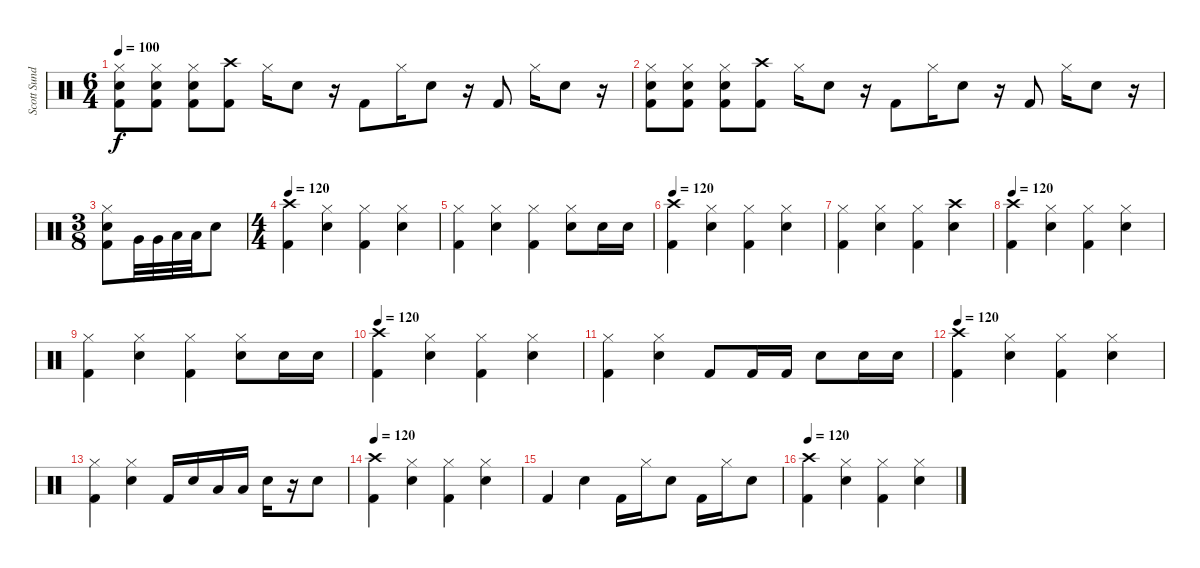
\track ("Scott Sundquist" "Scott Sund") {instrument percussion}
\staff {score}
\articulation defaults
\ts (6 4)
\tempo 100
\clef neutral
\ks c
("Hi-Hat (closed)" "Electric Snare (hit)" "Kick (hit) 2").8{dy f} ("Hi-Hat (closed)" "Electric Snare (hit)" "Kick (hit) 2").8 ("Hi-Hat (closed)" "Electric Snare (hit)" "Kick (hit) 2").8 ("Crash high (hit)" "Kick (hit) 2").8 "Hi-Hat (closed)".16 "Electric Snare (hit)".8 r.16 "Kick (hit) 2".8 "Hi-Hat (closed)".16 "Electric Snare (hit)".8 r.16 "Kick (hit) 2".8 "Hi-Hat (closed)".16 "Electric Snare (hit)".8 r.16 |
("Hi-Hat (closed)" "Electric Snare (hit)" "Kick (hit) 2").8 ("Hi-Hat (closed)" "Electric Snare (hit)" "Kick (hit) 2").8 ("Hi-Hat (closed)" "Electric Snare (hit)" "Kick (hit) 2").8 ("Crash high (hit)" "Kick (hit) 2").8 "Hi-Hat (closed)".16 "Electric Snare (hit)".8 r.16 "Kick (hit) 2".8 "Hi-Hat (closed)".16 "Electric Snare (hit)".8 r.16 "Kick (hit) 2".8 "Hi-Hat (closed)".16 "Electric Snare (hit)".8 r.16 |
\ts (3 8)
("Hi-Hat (closed)" "Electric Snare (hit)" "Kick (hit) 2").8 "Very Low Tom (hit)".32 "Very Low Tom (hit)".32 "Low Floor Tom (hit)".32 "Low Tom (hit)".32 "Electric Snare (hit)".8 |
\ts (4 4)
\tempo 120
("Crash high (hit)" "Kick (hit) 2").4 ("Hi-Hat (closed)" "Electric Snare (hit)").4 ("Hi-Hat (closed)" "Kick (hit) 2").4 ("Hi-Hat (closed)" "Electric Snare (hit)").4 |
("Hi-Hat (closed)" "Kick (hit) 2").4 ("Hi-Hat (closed)" "Electric Snare (hit)").4 ("Hi-Hat (closed)" "Kick (hit) 2").4 ("Hi-Hat (closed)" "Electric Snare (hit)").8 "Electric Snare (hit)".16 "Electric Snare (hit)".16 |
\tempo 120
("Crash high (hit)" "Kick (hit) 2").4 ("Hi-Hat (closed)" "Electric Snare (hit)").4 ("Hi-Hat (closed)" "Kick (hit) 2").4 ("Hi-Hat (closed)" "Electric Snare (hit)").4 |
("Hi-Hat (closed)" "Kick (hit) 2").4 ("Hi-Hat (closed)" "Electric Snare (hit)").4 ("Hi-Hat (closed)" "Kick (hit) 2").4 ("Crash high (hit)" "Electric Snare (hit)").4 |
\tempo 120
("Crash high (hit)" "Kick (hit) 2").4 ("Hi-Hat (closed)" "Electric Snare (hit)").4 ("Hi-Hat (closed)" "Kick (hit) 2").4 ("Hi-Hat (closed)" "Electric Snare (hit)").4 |
("Hi-Hat (closed)" "Kick (hit) 2").4 ("Hi-Hat (closed)" "Electric Snare (hit)").4 ("Hi-Hat (closed)" "Kick (hit) 2").4 ("Hi-Hat (closed)" "Electric Snare (hit)").8 "Electric Snare (hit)".16 "Electric Snare (hit)".16 |
\tempo 120
("Crash high (hit)" "Kick (hit) 2").4 ("Hi-Hat (closed)" "Electric Snare (hit)").4 ("Hi-Hat (closed)" "Kick (hit) 2").4 ("Hi-Hat (closed)" "Electric Snare (hit)").4 |
("Hi-Hat (closed)" "Kick (hit) 2").4 ("Hi-Hat (closed)" "Electric Snare (hit)").4 "Kick (hit) 2".8 "Kick (hit) 2".16 "Kick (hit) 2".16 "Electric Snare (hit)".8 "Electric Snare (hit)".16 "Electric Snare (hit)".16 |
\tempo 120
("Crash high (hit)" "Kick (hit) 2").4 ("Hi-Hat (closed)" "Electric Snare (hit)").4 ("Hi-Hat (closed)" "Kick (hit) 2").4 ("Hi-Hat (closed)" "Electric Snare (hit)").4 |
("Hi-Hat (closed)" "Kick (hit) 2").4 ("Hi-Hat (closed)" "Electric Snare (hit)").4 "Kick (hit) 2".16 "Electric Snare (hit)".16 "Low Floor Tom (hit)".16 "Low Floor Tom (hit)".16 "Electric Snare (hit)".16 r.16 "Electric Snare (hit)".8 |
\tempo 120
("Crash high (hit)" "Kick (hit) 2").4 ("Hi-Hat (closed)" "Electric Snare (hit)").4 ("Hi-Hat (closed)" "Kick (hit) 2").4 ("Hi-Hat (closed)" "Electric Snare (hit)").4 |
"Kick (hit) 2".4 "Electric Snare (hit)".4 "Kick (hit) 2".16 "Hi-Hat (closed)".16 "Electric Snare (hit)".8 "Kick (hit) 2".16 "Hi-Hat (closed)".16 "Electric Snare (hit)".8 |
\tempo 120
("Crash high (hit)" "Kick (hit) 2").4 ("Hi-Hat (closed)" "Electric Snare (hit)").4 ("Hi-Hat (closed)" "Kick (hit) 2").4 ("Hi-Hat (closed)" "Electric Snare (hit)").4
